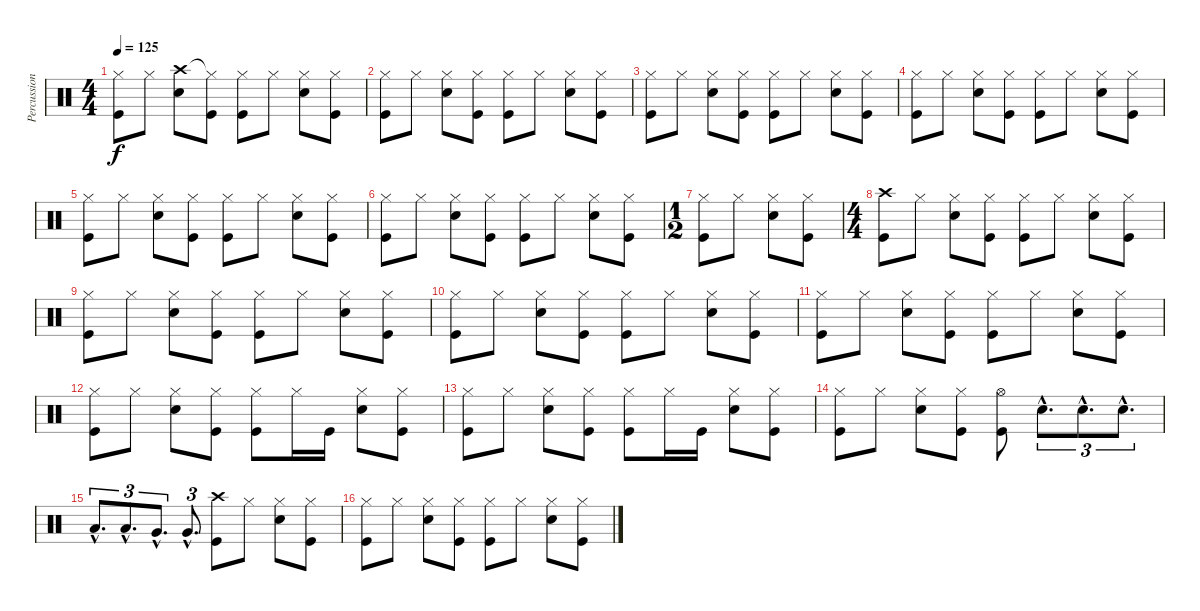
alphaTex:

\track ("Percussion" "Percussion") {instrument percussion}
\staff {score}
\articulation defaults
\ts (4 4)
\tempo 125
\clef neutral
\ks c
("Hi-Hat (closed)" "Kick (hit)").8{dy f} "Hi-Hat (closed)".8 ("Crash high (hit)" "Electric Snare (hit)").8 ("Hi-Hat (closed)"{t} "Kick (hit)").8 ("Hi-Hat (closed)" "Kick (hit)").8 "Hi-Hat (closed)".8 ("Hi-Hat (closed)" "Electric Snare (hit)").8 ("Hi-Hat (closed)" "Kick (hit)").8 |
("Hi-Hat (closed)" "Kick (hit)").8 "Hi-Hat (closed)".8 ("Hi-Hat (closed)" "Electric Snare (hit)").8 ("Hi-Hat (closed)" "Kick (hit)").8 ("Hi-Hat (closed)" "Kick (hit)").8 "Hi-Hat (closed)".8 ("Hi-Hat (closed)" "Electric Snare (hit)").8 ("Hi-Hat (closed)" "Kick (hit)").8 |
("Hi-Hat (closed)" "Kick (hit)").8 "Hi-Hat (closed)".8 ("Hi-Hat (closed)" "Electric Snare (hit)").8 ("Hi-Hat (closed)" "Kick (hit)").8 ("Hi-Hat (closed)" "Kick (hit)").8 "Hi-Hat (closed)".8 ("Hi-Hat (closed)" "Electric Snare (hit)").8 ("Hi-Hat (closed)" "Kick (hit)").8 |
("Hi-Hat (closed)" "Kick (hit)").8 "Hi-Hat (closed)".8 ("Hi-Hat (closed)" "Electric Snare (hit)").8 ("Hi-Hat (closed)" "Kick (hit)").8 ("Hi-Hat (closed)" "Kick (hit)").8 "Hi-Hat (closed)".8 ("Hi-Hat (closed)" "Electric Snare (hit)").8 ("Hi-Hat (closed)" "Kick (hit)").8 |
("Hi-Hat (closed)" "Kick (hit)").8 "Hi-Hat (closed)".8 ("Hi-Hat (closed)" "Electric Snare (hit)").8 ("Hi-Hat (closed)" "Kick (hit)").8 ("Hi-Hat (closed)" "Kick (hit)").8 "Hi-Hat (closed)".8 ("Hi-Hat (closed)" "Electric Snare (hit)").8 ("Hi-Hat (closed)" "Kick (hit)").8 |
("Hi-Hat (closed)" "Kick (hit)").8 "Hi-Hat (closed)".8 ("Hi-Hat (closed)" "Electric Snare (hit)").8 ("Hi-Hat (closed)" "Kick (hit)").8 ("Hi-Hat (closed)" "Kick (hit)").8 "Hi-Hat (closed)".8 ("Hi-Hat (closed)" "Electric Snare (hit)").8 ("Hi-Hat (closed)" "Kick (hit)").8 |
\ts (1 2)
("Hi-Hat (closed)" "Kick (hit)").8 "Hi-Hat (closed)".8 ("Hi-Hat (closed)" "Electric Snare (hit)").8 ("Hi-Hat (closed)" "Kick (hit)").8 |
\ts (4 4)
("Crash high (hit)" "Kick (hit)").8 "Hi-Hat (closed)".8 ("Hi-Hat (closed)" "Electric Snare (hit)").8 ("Hi-Hat (closed)" "Kick (hit)").8 ("Hi-Hat (closed)" "Kick (hit)").8 "Hi-Hat (closed)".8 ("Hi-Hat (closed)" "Electric Snare (hit)").8 ("Hi-Hat (closed)" "Kick (hit)").8 |
("Hi-Hat (closed)" "Kick (hit)").8 "Hi-Hat (closed)".8 ("Hi-Hat (closed)" "Electric Snare (hit)").8 ("Hi-Hat (closed)" "Kick (hit)").8 ("Hi-Hat (closed)" "Kick (hit)").8 "Hi-Hat (closed)".8 ("Hi-Hat (closed)" "Electric Snare (hit)").8 ("Hi-Hat (closed)" "Kick (hit)").8 |
("Hi-Hat (closed)" "Kick (hit)").8 "Hi-Hat (closed)".8 ("Hi-Hat (closed)" "Electric Snare (hit)").8 ("Hi-Hat (closed)" "Kick (hit)").8 ("Hi-Hat (closed)" "Kick (hit)").8 "Hi-Hat (closed)".8 ("Hi-Hat (closed)" "Electric Snare (hit)").8 ("Hi-Hat (closed)" "Kick (hit)").8 |
("Hi-Hat (closed)" "Kick (hit)").8 "Hi-Hat (closed)".8 ("Hi-Hat (closed)" "Electric Snare (hit)").8 ("Hi-Hat (closed)" "Kick (hit)").8 ("Hi-Hat (closed)" "Kick (hit)").8 "Hi-Hat (closed)".8 ("Hi-Hat (closed)" "Electric Snare (hit)").8 ("Hi-Hat (closed)" "Kick (hit)").8 |
("Hi-Hat (closed)" "Kick (hit)").8 "Hi-Hat (closed)".8 ("Hi-Hat (closed)" "Electric Snare (hit)").8 ("Hi-Hat (closed)" "Kick (hit)").8 ("Hi-Hat (closed)" "Kick (hit)").8 "Hi-Hat (closed)".16 "Kick (hit)".16 ("Hi-Hat (closed)" "Electric Snare (hit)").8 ("Hi-Hat (closed)" "Kick (hit)").8 |
("Hi-Hat (closed)" "Kick (hit)").8 "Hi-Hat (closed)".8 ("Hi-Hat (closed)" "Electric Snare (hit)").8 ("Hi-Hat (closed)" "Kick (hit)").8 ("Hi-Hat (closed)" "Kick (hit)").8 "Hi-Hat (closed)".16 "Kick (hit)".16 ("Hi-Hat (closed)" "Electric Snare (hit)").8 ("Hi-Hat (closed)" "Kick (hit)").8 |
("Hi-Hat (closed)" "Kick (hit)").8 "Hi-Hat (closed)".8 ("Hi-Hat (closed)" "Electric Snare (hit)").8 ("Hi-Hat (closed)" "Kick (hit)").8 ("Hi-Hat (open)" "Kick (hit)").8 "Electric Snare (hit)"{hac}.8{d tu (3 2)} "Electric Snare (hit)"{hac}.8{d tu (3 2)} "Electric Snare (hit)"{hac}.8{d tu (3 2)} |
"Low Tom (hit)"{hac}.8{d tu (3 2)} "Low Tom (hit)"{hac}.8{d tu (3 2)} "Very Low Tom (hit)"{hac}.8{d tu (3 2)} "Very Low Tom (hit)"{hac}.8{d tu (3 2)} ("Crash high (hit)" "Kick (hit)").8 "Hi-Hat (closed)".8 ("Hi-Hat (closed)" "Electric Snare (hit)").8 ("Hi-Hat (closed)" "Kick (hit)").8 |
("Hi-Hat (closed)" "Kick (hit)").8 "Hi-Hat (closed)".8 ("Hi-Hat (closed)" "Electric Snare (hit)").8 ("Hi-Hat (closed)" "Kick (hit)").8 ("Hi-Hat (closed)" "Kick (hit)").8 "Hi-Hat (closed)".8 ("Hi-Hat (closed)" "Electric Snare (hit)").8 ("Hi-Hat (closed)" "Kick (hit)").8
